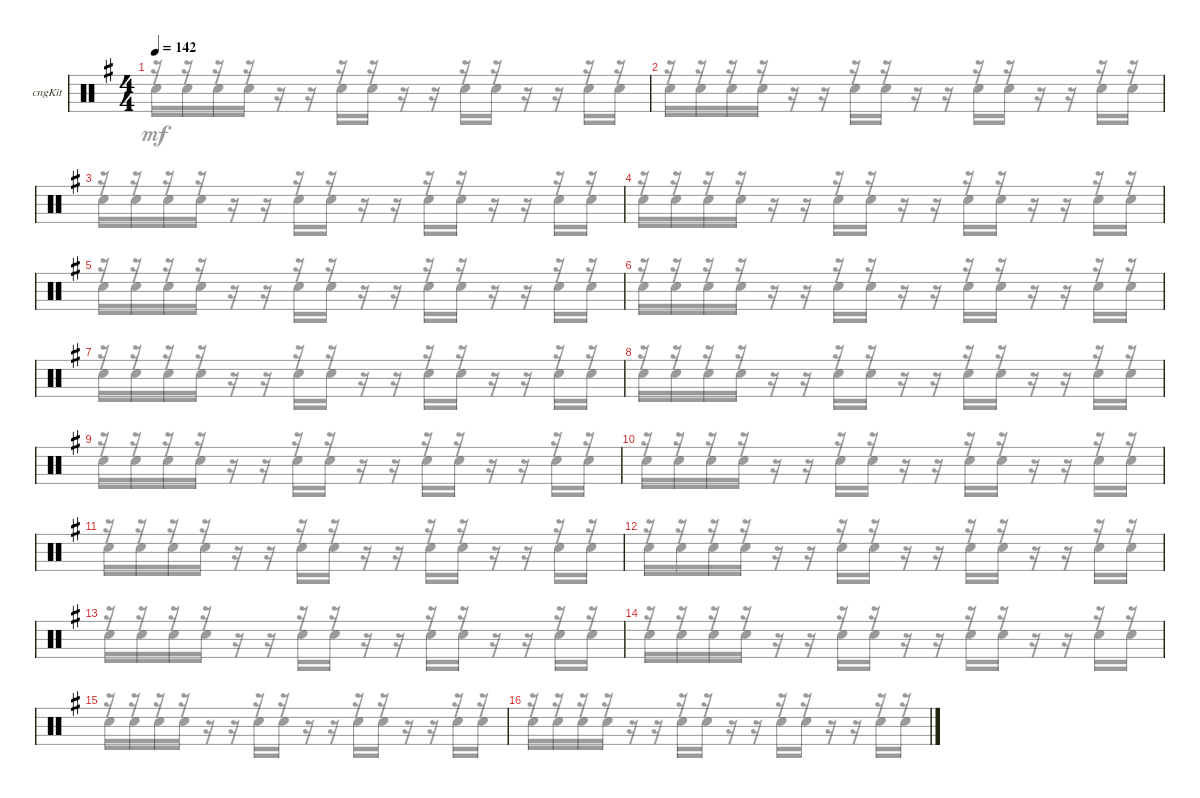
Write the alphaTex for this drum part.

\bracketExtendMode groupsimilarinstruments
\firstSystemTrackNameOrientation horizontal
\otherSystemsTrackNameOrientation horizontal
\track ("Congas" "cngKit") {instrument percussion}
\staff {score}
\articulation defaults
\voice
\ts (4 4)
\tempo 142
\clef neutral
\ks eminor
|
|
|
|
|
|
|
|
|
|
|
|
|
|
|
\voice
\clef neutral
\ks eminor
r.16{dy mf} r.16 r.16 r.16 r.16 r.16 r.16 r.16 r.16 r.16 r.16 r.16 r.16 r.16 r.16 r.16 |
r.16 r.16 r.16 r.16 r.16 r.16 r.16 r.16 r.16 r.16 r.16 r.16 r.16 r.16 r.16 r.16 |
r.16 r.16 r.16 r.16 r.16 r.16 r.16 r.16 r.16 r.16 r.16 r.16 r.16 r.16 r.16 r.16 |
r.16 r.16 r.16 r.16 r.16 r.16 r.16 r.16 r.16 r.16 r.16 r.16 r.16 r.16 r.16 r.16 |
r.16 r.16 r.16 r.16 r.16 r.16 r.16 r.16 r.16 r.16 r.16 r.16 r.16 r.16 r.16 r.16 |
r.16 r.16 r.16 r.16 r.16 r.16 r.16 r.16 r.16 r.16 r.16 r.16 r.16 r.16 r.16 r.16 |
r.16 r.16 r.16 r.16 r.16 r.16 r.16 r.16 r.16 r.16 r.16 r.16 r.16 r.16 r.16 r.16 |
r.16 r.16 r.16 r.16 r.16 r.16 r.16 r.16 r.16 r.16 r.16 r.16 r.16 r.16 r.16 r.16 |
r.16 r.16 r.16 r.16 r.16 r.16 r.16 r.16 r.16 r.16 r.16 r.16 r.16 r.16 r.16 r.16 |
r.16 r.16 r.16 r.16 r.16 r.16 r.16 r.16 r.16 r.16 r.16 r.16 r.16 r.16 r.16 r.16 |
r.16 r.16 r.16 r.16 r.16 r.16 r.16 r.16 r.16 r.16 r.16 r.16 r.16 r.16 r.16 r.16 |
r.16 r.16 r.16 r.16 r.16 r.16 r.16 r.16 r.16 r.16 r.16 r.16 r.16 r.16 r.16 r.16 |
r.16 r.16 r.16 r.16 r.16 r.16 r.16 r.16 r.16 r.16 r.16 r.16 r.16 r.16 r.16 r.16 |
r.16 r.16 r.16 r.16 r.16 r.16 r.16 r.16 r.16 r.16 r.16 r.16 r.16 r.16 r.16 r.16 |
r.16 r.16 r.16 r.16 r.16 r.16 r.16 r.16 r.16 r.16 r.16 r.16 r.16 r.16 r.16 r.16 |
r.16 r.16 r.16 r.16 r.16 r.16 r.16 r.16 r.16 r.16 r.16 r.16 r.16 r.16 r.16 r.16
\voice
\clef neutral
\ottava regular
\simile none
\ks eminor "Snare (hit) 2".16{dy mf} "Snare (hit) 2".16 "Snare (hit) 2".16 "Snare (hit) 2".16
r.16 r.16 "Snare (hit) 2".16 "Snare (hit) 2".16 r.16 r.16 "Snare (hit) 2".16 "Snare (hit) 2".16 r.16 r.16 "Snare (hit) 2".16 "Snare (hit) 2".16 |
"Snare (hit) 2".16 "Snare (hit) 2".16 "Snare (hit) 2".16 "Snare (hit) 2".16 r.16 r.16 "Snare (hit) 2".16 "Snare (hit) 2".16 r.16 r.16 "Snare (hit) 2".16 "Snare (hit) 2".16 r.16 r.16 "Snare (hit) 2".16 "Snare (hit) 2".16 |
"Snare (hit) 2".16 "Snare (hit) 2".16 "Snare (hit) 2".16 "Snare (hit) 2".16 r.16 r.16 "Snare (hit) 2".16 "Snare (hit) 2".16 r.16 r.16 "Snare (hit) 2".16 "Snare (hit) 2".16 r.16 r.16 "Snare (hit) 2".16 "Snare (hit) 2".16 |
"Snare (hit) 2".16 "Snare (hit) 2".16 "Snare (hit) 2".16 "Snare (hit) 2".16 r.16 r.16 "Snare (hit) 2".16 "Snare (hit) 2".16 r.16 r.16 "Snare (hit) 2".16 "Snare (hit) 2".16 r.16 r.16 "Snare (hit) 2".16 "Snare (hit) 2".16 |
"Snare (hit) 2".16 "Snare (hit) 2".16 "Snare (hit) 2".16 "Snare (hit) 2".16 r.16 r.16 "Snare (hit) 2".16 "Snare (hit) 2".16 r.16 r.16 "Snare (hit) 2".16 "Snare (hit) 2".16 r.16 r.16 "Snare (hit) 2".16 "Snare (hit) 2".16 |
"Snare (hit) 2".16 "Snare (hit) 2".16 "Snare (hit) 2".16 "Snare (hit) 2".16 r.16 r.16 "Snare (hit) 2".16 "Snare (hit) 2".16 r.16 r.16 "Snare (hit) 2".16 "Snare (hit) 2".16 r.16 r.16 "Snare (hit) 2".16 "Snare (hit) 2".16 |
"Snare (hit) 2".16 "Snare (hit) 2".16 "Snare (hit) 2".16 "Snare (hit) 2".16 r.16 r.16 "Snare (hit) 2".16 "Snare (hit) 2".16 r.16 r.16 "Snare (hit) 2".16 "Snare (hit) 2".16 r.16 r.16 "Snare (hit) 2".16 "Snare (hit) 2".16 |
"Snare (hit) 2".16 "Snare (hit) 2".16 "Snare (hit) 2".16 "Snare (hit) 2".16 r.16 r.16 "Snare (hit) 2".16 "Snare (hit) 2".16 r.16 r.16 "Snare (hit) 2".16 "Snare (hit) 2".16 r.16 r.16 "Snare (hit) 2".16 "Snare (hit) 2".16 |
"Snare (hit) 2".16 "Snare (hit) 2".16 "Snare (hit) 2".16 "Snare (hit) 2".16 r.16 r.16 "Snare (hit) 2".16 "Snare (hit) 2".16 r.16 r.16 "Snare (hit) 2".16 "Snare (hit) 2".16 r.16 r.16 "Snare (hit) 2".16 "Snare (hit) 2".16 |
"Snare (hit) 2".16 "Snare (hit) 2".16 "Snare (hit) 2".16 "Snare (hit) 2".16 r.16 r.16 "Snare (hit) 2".16 "Snare (hit) 2".16 r.16 r.16 "Snare (hit) 2".16 "Snare (hit) 2".16 r.16 r.16 "Snare (hit) 2".16 "Snare (hit) 2".16 |
"Snare (hit) 2".16 "Snare (hit) 2".16 "Snare (hit) 2".16 "Snare (hit) 2".16 r.16 r.16 "Snare (hit) 2".16 "Snare (hit) 2".16 r.16 r.16 "Snare (hit) 2".16 "Snare (hit) 2".16 r.16 r.16 "Snare (hit) 2".16 "Snare (hit) 2".16 |
"Snare (hit) 2".16 "Snare (hit) 2".16 "Snare (hit) 2".16 "Snare (hit) 2".16 r.16 r.16 "Snare (hit) 2".16 "Snare (hit) 2".16 r.16 r.16 "Snare (hit) 2".16 "Snare (hit) 2".16 r.16 r.16 "Snare (hit) 2".16 "Snare (hit) 2".16 |
"Snare (hit) 2".16 "Snare (hit) 2".16 "Snare (hit) 2".16 "Snare (hit) 2".16 r.16 r.16 "Snare (hit) 2".16 "Snare (hit) 2".16 r.16 r.16 "Snare (hit) 2".16 "Snare (hit) 2".16 r.16 r.16 "Snare (hit) 2".16 "Snare (hit) 2".16 |
"Snare (hit) 2".16 "Snare (hit) 2".16 "Snare (hit) 2".16 "Snare (hit) 2".16 r.16 r.16 "Snare (hit) 2".16 "Snare (hit) 2".16 r.16 r.16 "Snare (hit) 2".16 "Snare (hit) 2".16 r.16 r.16 "Snare (hit) 2".16 "Snare (hit) 2".16 |
"Snare (hit) 2".16 "Snare (hit) 2".16 "Snare (hit) 2".16 "Snare (hit) 2".16 r.16 r.16 "Snare (hit) 2".16 "Snare (hit) 2".16 r.16 r.16 "Snare (hit) 2".16 "Snare (hit) 2".16 r.16 r.16 "Snare (hit) 2".16 "Snare (hit) 2".16 |
"Snare (hit) 2".16 "Snare (hit) 2".16 "Snare (hit) 2".16 "Snare (hit) 2".16 r.16 r.16 "Snare (hit) 2".16 "Snare (hit) 2".16 r.16 r.16 "Snare (hit) 2".16 "Snare (hit) 2".16 r.16 r.16 "Snare (hit) 2".16 "Snare (hit) 2".16
